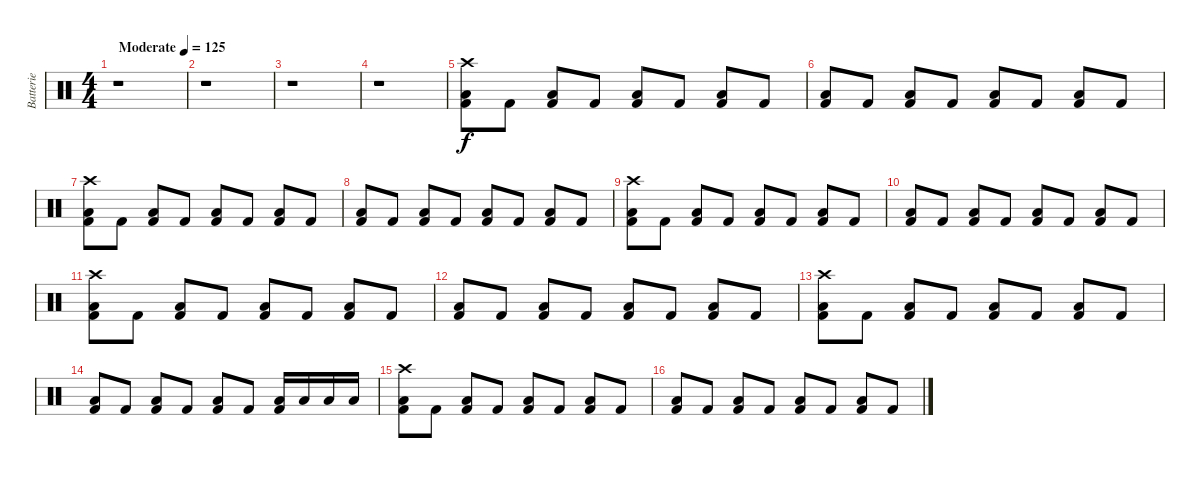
\track ("Batterie" "Batterie") {instrument percussion}
\staff {score}
\articulation defaults
\ts (4 4)
\tempo (125 "Moderate")
\clef neutral
\ks c
r.1{dy f} |
r.1 |
r.1 |
r.1 |
("Crash high (hit)" "Kick (hit) 2" "Low Tom (hit)").8 "Kick (hit) 2".8 ("Low Tom (hit)" "Kick (hit) 2").8 "Kick (hit) 2".8 ("Low Tom (hit)" "Kick (hit) 2").8 "Kick (hit) 2".8 ("Low Tom (hit)" "Kick (hit) 2").8 "Kick (hit) 2".8 |
("Low Tom (hit)" "Kick (hit) 2").8 "Kick (hit) 2".8 ("Low Tom (hit)" "Kick (hit) 2").8 "Kick (hit) 2".8 ("Low Tom (hit)" "Kick (hit) 2").8 "Kick (hit) 2".8 ("Low Tom (hit)" "Kick (hit) 2").8 "Kick (hit) 2".8 |
("Crash high (hit)" "Kick (hit) 2" "Low Tom (hit)").8 "Kick (hit) 2".8 ("Low Tom (hit)" "Kick (hit) 2").8 "Kick (hit) 2".8 ("Low Tom (hit)" "Kick (hit) 2").8 "Kick (hit) 2".8 ("Low Tom (hit)" "Kick (hit) 2").8 "Kick (hit) 2".8 |
("Low Tom (hit)" "Kick (hit) 2").8 "Kick (hit) 2".8 ("Low Tom (hit)" "Kick (hit) 2").8 "Kick (hit) 2".8 ("Low Tom (hit)" "Kick (hit) 2").8 "Kick (hit) 2".8 ("Low Tom (hit)" "Kick (hit) 2").8 "Kick (hit) 2".8 |
("Crash high (hit)" "Kick (hit) 2" "Low Tom (hit)").8 "Kick (hit) 2".8 ("Low Tom (hit)" "Kick (hit) 2").8 "Kick (hit) 2".8 ("Low Tom (hit)" "Kick (hit) 2").8 "Kick (hit) 2".8 ("Low Tom (hit)" "Kick (hit) 2").8 "Kick (hit) 2".8 |
("Low Tom (hit)" "Kick (hit) 2").8 "Kick (hit) 2".8 ("Low Tom (hit)" "Kick (hit) 2").8 "Kick (hit) 2".8 ("Low Tom (hit)" "Kick (hit) 2").8 "Kick (hit) 2".8 ("Low Tom (hit)" "Kick (hit) 2").8 "Kick (hit) 2".8 |
("Crash high (hit)" "Kick (hit) 2" "Low Tom (hit)").8 "Kick (hit) 2".8 ("Low Tom (hit)" "Kick (hit) 2").8 "Kick (hit) 2".8 ("Low Tom (hit)" "Kick (hit) 2").8 "Kick (hit) 2".8 ("Low Tom (hit)" "Kick (hit) 2").8 "Kick (hit) 2".8 |
("Low Tom (hit)" "Kick (hit) 2").8 "Kick (hit) 2".8 ("Low Tom (hit)" "Kick (hit) 2").8 "Kick (hit) 2".8 ("Low Tom (hit)" "Kick (hit) 2").8 "Kick (hit) 2".8 ("Low Tom (hit)" "Kick (hit) 2").8 "Kick (hit) 2".8 |
("Crash high (hit)" "Kick (hit) 2" "Low Tom (hit)").8 "Kick (hit) 2".8 ("Low Tom (hit)" "Kick (hit) 2").8 "Kick (hit) 2".8 ("Low Tom (hit)" "Kick (hit) 2").8 "Kick (hit) 2".8 ("Low Tom (hit)" "Kick (hit) 2").8 "Kick (hit) 2".8 |
("Low Tom (hit)" "Kick (hit) 2").8 "Kick (hit) 2".8 ("Low Tom (hit)" "Kick (hit) 2").8 "Kick (hit) 2".8 ("Low Tom (hit)" "Kick (hit) 2").8 "Kick (hit) 2".8 ("Low Tom (hit)" "Kick (hit) 2").16 "Low Tom (hit)".16 "Low Tom (hit)".16 "Low Tom (hit)".16 |
("Crash high (hit)" "Kick (hit) 2" "Low Tom (hit)").8 "Kick (hit) 2".8 ("Low Tom (hit)" "Kick (hit) 2").8 "Kick (hit) 2".8 ("Low Tom (hit)" "Kick (hit) 2").8 "Kick (hit) 2".8 ("Low Tom (hit)" "Kick (hit) 2").8 "Kick (hit) 2".8 |
("Low Tom (hit)" "Kick (hit) 2").8 "Kick (hit) 2".8 ("Low Tom (hit)" "Kick (hit) 2").8 "Kick (hit) 2".8 ("Low Tom (hit)" "Kick (hit) 2").8 "Kick (hit) 2".8 ("Low Tom (hit)" "Kick (hit) 2").8 "Kick (hit) 2".8
